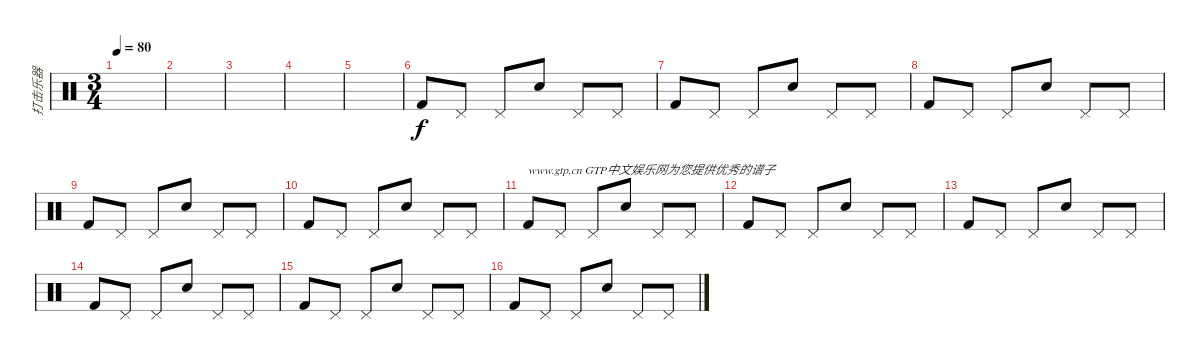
\track ("打击乐器" "打击乐器") {instrument percussion}
\staff {score}
\articulation defaults
\ts (3 4)
\tempo 80
\clef neutral
\ks c
|
|
|
|
|
"Kick (hit) 2".8{volume 12} "Pedal Hi-Hat (hit)".8{volume 8} "Pedal Hi-Hat (hit)".8{volume 8} "Snare (hit) 2".8{volume 12} "Pedal Hi-Hat (hit)".8{volume 8} "Pedal Hi-Hat (hit)".8{volume 8} |
"Kick (hit) 2".8{volume 12} "Pedal Hi-Hat (hit)".8{volume 8} "Pedal Hi-Hat (hit)".8{volume 8} "Snare (hit) 2".8{volume 12} "Pedal Hi-Hat (hit)".8{volume 8} "Pedal Hi-Hat (hit)".8{volume 8} |
"Kick (hit) 2".8{volume 12} "Pedal Hi-Hat (hit)".8{volume 8} "Pedal Hi-Hat (hit)".8{volume 8} "Snare (hit) 2".8{volume 12} "Pedal Hi-Hat (hit)".8{volume 8} "Pedal Hi-Hat (hit)".8{volume 8} |
"Kick (hit) 2".8{volume 12} "Pedal Hi-Hat (hit)".8{volume 8} "Pedal Hi-Hat (hit)".8{volume 8} "Snare (hit) 2".8{volume 12} "Pedal Hi-Hat (hit)".8{volume 8} "Pedal Hi-Hat (hit)".8{volume 8} |
"Kick (hit) 2".8{volume 12} "Pedal Hi-Hat (hit)".8{volume 8} "Pedal Hi-Hat (hit)".8{volume 8} "Snare (hit) 2".8{volume 12} "Pedal Hi-Hat (hit)".8{volume 8} "Pedal Hi-Hat (hit)".8{volume 8} |
"Kick (hit) 2".8{txt "www.gtp.cn GTP中文娱乐网为您提供优秀的谱子" volume 12} "Pedal Hi-Hat (hit)".8{volume 8} "Pedal Hi-Hat (hit)".8{volume 8} "Snare (hit) 2".8{volume 12} "Pedal Hi-Hat (hit)".8{volume 8} "Pedal Hi-Hat (hit)".8{volume 8} |
"Kick (hit) 2".8{volume 12} "Pedal Hi-Hat (hit)".8{volume 8} "Pedal Hi-Hat (hit)".8{volume 8} "Snare (hit) 2".8{volume 12} "Pedal Hi-Hat (hit)".8{volume 8} "Pedal Hi-Hat (hit)".8{volume 8} |
"Kick (hit) 2".8{volume 12} "Pedal Hi-Hat (hit)".8{volume 8} "Pedal Hi-Hat (hit)".8{volume 8} "Snare (hit) 2".8{volume 12} "Pedal Hi-Hat (hit)".8{volume 8} "Pedal Hi-Hat (hit)".8{volume 8} |
"Kick (hit) 2".8{volume 12} "Pedal Hi-Hat (hit)".8{volume 8} "Pedal Hi-Hat (hit)".8{volume 8} "Snare (hit) 2".8{volume 12} "Pedal Hi-Hat (hit)".8{volume 8} "Pedal Hi-Hat (hit)".8{volume 8} |
"Kick (hit) 2".8{volume 12} "Pedal Hi-Hat (hit)".8{volume 8} "Pedal Hi-Hat (hit)".8{volume 8} "Snare (hit) 2".8{volume 12} "Pedal Hi-Hat (hit)".8{volume 8} "Pedal Hi-Hat (hit)".8{volume 8} |
"Kick (hit) 2".8{volume 12} "Pedal Hi-Hat (hit)".8{volume 8} "Pedal Hi-Hat (hit)".8{volume 8} "Snare (hit) 2".8{volume 12} "Pedal Hi-Hat (hit)".8{volume 8} "Pedal Hi-Hat (hit)".8{volume 8}
